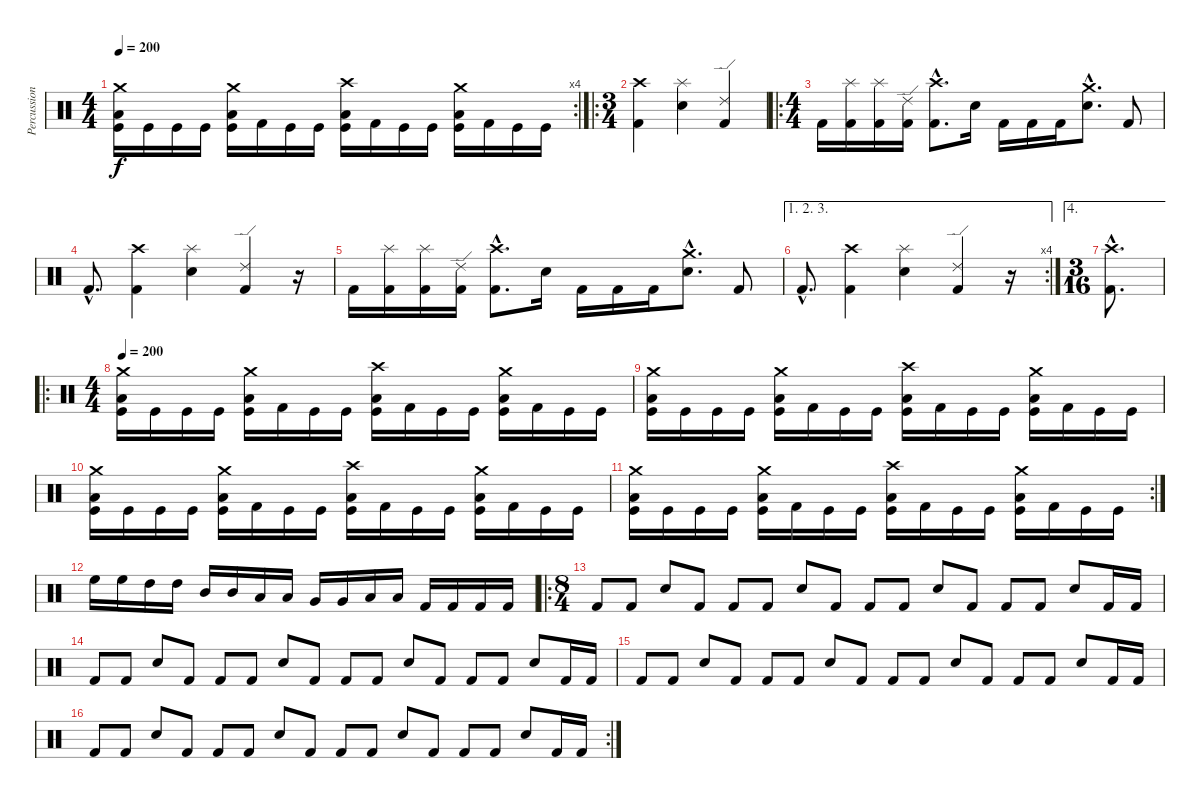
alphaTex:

\track ("Percussion" "Percussion") {instrument percussion}
\staff {score}
\articulation defaults
\rc 4
\ts (4 4)
\tempo 200
\clef neutral
\ks c
("Crash medium (hit)" "Low Tom (hit)" "Kick (hit)").16{dy f} "Kick (hit)".16 "Kick (hit)".16 "Kick (hit)".16 ("Crash medium (hit)" "Low Floor Tom (hit)" "Kick (hit)").16 "Kick (hit) 2".16 "Kick (hit)".16 "Kick (hit)".16 ("Crash high (hit)" "Low Floor Tom (hit)" "Kick (hit)").16 "Kick (hit) 2".16 "Kick (hit)".16 "Kick (hit)".16 ("Crash medium (hit)" "Low Tom (hit)" "Kick (hit)").16 "Kick (hit) 2".16 "Kick (hit)".16 "Kick (hit)".16 |
\ro
\ts (3 4)
("Crash high (hit)" "Kick (hit) 2").4 ("Splash (hit)" "Snare (hit) 2").4 ("Ride (edge) 2" "Kick (hit) 2").4 |
\ro
\ts (4 4)
"Kick (hit) 2".16 ("Splash (hit)" "Kick (hit) 2").16 ("Splash (hit)" "Kick (hit) 2").16 ("Ride (edge) 2" "Kick (hit) 2").16 ("Crash high (hit)"{hac} "Kick (hit) 2"{hac}).8{d} "Snare (hit) 2".16 "Kick (hit) 2".16 "Kick (hit) 2".16 "Kick (hit) 2".16 ("Crash medium (hit)"{hac} "Snare (hit) 2"{hac}).8{d} "Kick (hit) 2".8 |
"Kick (hit) 2"{hac}.8{d} ("Crash high (hit)" "Kick (hit) 2").4 ("Splash (hit)" "Snare (hit) 2").4 ("Ride (edge) 2" "Kick (hit) 2").4 r.16 |
"Kick (hit) 2".16 ("Splash (hit)" "Kick (hit) 2").16 ("Splash (hit)" "Kick (hit) 2").16 ("Ride (edge) 2" "Kick (hit) 2").16 ("Crash high (hit)"{hac} "Kick (hit) 2"{hac}).8{d} "Snare (hit) 2".16 "Kick (hit) 2".16 "Kick (hit) 2".16 "Kick (hit) 2".16 ("Crash medium (hit)"{hac} "Snare (hit) 2"{hac}).8{d} "Kick (hit) 2".8 |
\ae (1 2 3)
\rc 4 "Kick (hit) 2"{hac}.8{d}
("Crash high (hit)" "Kick (hit) 2").4 ("Splash (hit)" "Snare (hit) 2").4 ("Ride (edge) 2" "Kick (hit) 2").4 r.16 |
\ae 4
\ts (3 16)
("Crash high (hit)"{hac} "Kick (hit) 2"{hac}).8{d} |
\ro
\ts (4 4)
\tempo 200
("Crash medium (hit)" "Low Tom (hit)" "Kick (hit)").16 "Kick (hit)".16 "Kick (hit)".16 "Kick (hit)".16 ("Crash medium (hit)" "Low Floor Tom (hit)" "Kick (hit)").16 "Kick (hit) 2".16 "Kick (hit)".16 "Kick (hit)".16 ("Crash high (hit)" "Low Floor Tom (hit)" "Kick (hit)").16 "Kick (hit) 2".16 "Kick (hit)".16 "Kick (hit)".16 ("Crash medium (hit)" "Low Tom (hit)" "Kick (hit)").16 "Kick (hit) 2".16 "Kick (hit)".16 "Kick (hit)".16 |
("Crash medium (hit)" "Low Tom (hit)" "Kick (hit)").16 "Kick (hit)".16 "Kick (hit)".16 "Kick (hit)".16 ("Crash medium (hit)" "Low Floor Tom (hit)" "Kick (hit)").16 "Kick (hit) 2".16 "Kick (hit)".16 "Kick (hit)".16 ("Crash high (hit)" "Low Floor Tom (hit)" "Kick (hit)").16 "Kick (hit) 2".16 "Kick (hit)".16 "Kick (hit)".16 ("Crash medium (hit)" "Low Tom (hit)" "Kick (hit)").16 "Kick (hit) 2".16 "Kick (hit)".16 "Kick (hit)".16 |
("Crash medium (hit)" "Low Tom (hit)" "Kick (hit)").16 "Kick (hit)".16 "Kick (hit)".16 "Kick (hit)".16 ("Crash medium (hit)" "Low Floor Tom (hit)" "Kick (hit)").16 "Kick (hit) 2".16 "Kick (hit)".16 "Kick (hit)".16 ("Crash high (hit)" "Low Floor Tom (hit)" "Kick (hit)").16 "Kick (hit) 2".16 "Kick (hit)".16 "Kick (hit)".16 ("Crash medium (hit)" "Low Tom (hit)" "Kick (hit)").16 "Kick (hit) 2".16 "Kick (hit)".16 "Kick (hit)".16 |
\rc 2
("Crash medium (hit)" "Low Tom (hit)" "Kick (hit)").16 "Kick (hit)".16 "Kick (hit)".16 "Kick (hit)".16 ("Crash medium (hit)" "Low Floor Tom (hit)" "Kick (hit)").16 "Kick (hit) 2".16 "Kick (hit)".16 "Kick (hit)".16 ("Crash high (hit)" "Low Floor Tom (hit)" "Kick (hit)").16 "Kick (hit) 2".16 "Kick (hit)".16 "Kick (hit)".16 ("Crash medium (hit)" "Low Tom (hit)" "Kick (hit)").16 "Kick (hit) 2".16 "Kick (hit)".16 "Kick (hit)".16 |
"High Floor Tom (hit)".16 "High Floor Tom (hit)".16 "High Tom (hit)".16 "High Tom (hit)".16 "Mid Tom (hit)".16 "Mid Tom (hit)".16 "Low Tom (hit)".16 "Low Tom (hit)".16 "Very Low Tom (hit)".16 "Very Low Tom (hit)".16 "Low Floor Tom (hit)".16 "Low Floor Tom (hit)".16 "Kick (hit) 2".16 "Kick (hit) 2".16 "Kick (hit) 2".16 "Kick (hit) 2".16 |
\ro
\ts (8 4)
"Kick (hit) 2".8 "Kick (hit) 2".8 "Snare (hit) 2".8 "Kick (hit) 2".8 "Kick (hit) 2".8 "Kick (hit) 2".8 "Snare (hit) 2".8 "Kick (hit) 2".8 "Kick (hit) 2".8 "Kick (hit) 2".8 "Snare (hit) 2".8 "Kick (hit) 2".8 "Kick (hit) 2".8 "Kick (hit) 2".8 "Snare (hit) 2".8 "Kick (hit) 2".16 "Kick (hit) 2".16 |
"Kick (hit) 2".8 "Kick (hit) 2".8 "Snare (hit) 2".8 "Kick (hit) 2".8 "Kick (hit) 2".8 "Kick (hit) 2".8 "Snare (hit) 2".8 "Kick (hit) 2".8 "Kick (hit) 2".8 "Kick (hit) 2".8 "Snare (hit) 2".8 "Kick (hit) 2".8 "Kick (hit) 2".8 "Kick (hit) 2".8 "Snare (hit) 2".8 "Kick (hit) 2".16 "Kick (hit) 2".16 |
"Kick (hit) 2".8 "Kick (hit) 2".8 "Snare (hit) 2".8 "Kick (hit) 2".8 "Kick (hit) 2".8 "Kick (hit) 2".8 "Snare (hit) 2".8 "Kick (hit) 2".8 "Kick (hit) 2".8 "Kick (hit) 2".8 "Snare (hit) 2".8 "Kick (hit) 2".8 "Kick (hit) 2".8 "Kick (hit) 2".8 "Snare (hit) 2".8 "Kick (hit) 2".16 "Kick (hit) 2".16 |
\rc 2 "Kick (hit) 2".8 "Kick (hit) 2".8 "Snare (hit) 2".8 "Kick (hit) 2".8 "Kick (hit) 2".8 "Kick (hit) 2".8 "Snare (hit) 2".8 "Kick (hit) 2".8 "Kick (hit) 2".8 "Kick (hit) 2".8 "Snare (hit) 2".8 "Kick (hit) 2".8 "Kick (hit) 2".8 "Kick (hit) 2".8 "Snare (hit) 2".8 "Kick (hit) 2".16 "Kick (hit) 2".16
